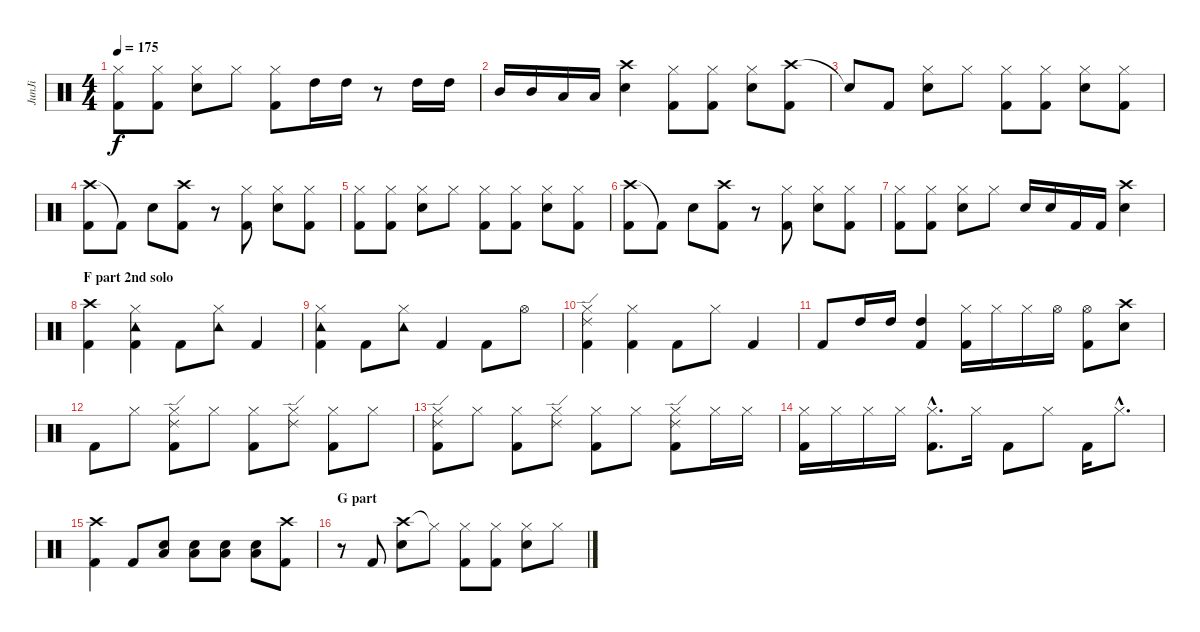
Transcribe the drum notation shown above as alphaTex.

\track ("JunJi" "JunJi") {instrument percussion}
\staff {score}
\articulation defaults
\ts (4 4)
\tempo 175
\clef neutral
\ks c
("Hi-Hat (closed)" "Kick (hit) 2").8{dy f} ("Hi-Hat (closed)" "Kick (hit) 2").8 ("Hi-Hat (closed)" "Snare (hit) 2").8 "Hi-Hat (closed)".8 ("Hi-Hat (closed)" "Kick (hit) 2").8 "High Tom (hit)".16 "High Tom (hit)".16 r.8 "High Tom (hit)".16 "High Tom (hit)".16 |
"Mid Tom (hit)".16 "Mid Tom (hit)".16 "Low Tom (hit)".16 "Low Tom (hit)".16 ("Crash high (hit)" "Snare (hit) 2").4 ("Hi-Hat (closed)" "Kick (hit) 2").8 ("Hi-Hat (closed)" "Kick (hit) 2").8 ("Hi-Hat (closed)" "Snare (hit) 2").8 ("Crash high (hit)" "Kick (hit) 2").8 |
"Snare (hit)"{t}.8 "Kick (hit) 2".8 ("Hi-Hat (closed)" "Snare (hit) 2").8 "Hi-Hat (closed)".8 ("Hi-Hat (closed)" "Kick (hit) 2").8 ("Hi-Hat (closed)" "Kick (hit) 2").8 ("Hi-Hat (closed)" "Snare (hit) 2").8 ("Hi-Hat (closed)" "Kick (hit) 2").8 |
("Crash high (hit)" "Kick (hit) 2").8 "Kick (hit) 2"{t}.8 "Snare (hit) 2".8 ("Crash high (hit)" "Kick (hit) 2").8 r.8 ("Hi-Hat (closed)" "Kick (hit) 2").8 ("Hi-Hat (closed)" "Snare (hit) 2").8 ("Hi-Hat (closed)" "Kick (hit) 2").8 |
("Hi-Hat (closed)" "Kick (hit) 2").8 ("Hi-Hat (closed)" "Kick (hit) 2").8 ("Hi-Hat (closed)" "Snare (hit) 2").8 "Hi-Hat (closed)".8 ("Hi-Hat (closed)" "Kick (hit) 2").8 ("Hi-Hat (closed)" "Kick (hit) 2").8 ("Hi-Hat (closed)" "Snare (hit) 2").8 ("Hi-Hat (closed)" "Kick (hit) 2").8 |
("Crash high (hit)" "Kick (hit) 2").8 "Kick (hit) 2"{t}.8 "Snare (hit) 2".8 ("Crash high (hit)" "Kick (hit) 2").8 r.8 ("Hi-Hat (closed)" "Kick (hit) 2").8 ("Hi-Hat (closed)" "Snare (hit) 2").8 ("Hi-Hat (closed)" "Kick (hit) 2").8 |
("Hi-Hat (closed)" "Kick (hit) 2").8 ("Hi-Hat (closed)" "Kick (hit) 2").8 ("Hi-Hat (closed)" "Snare (hit) 2").8 "Hi-Hat (closed)".8 "Snare (hit) 2".16 "Snare (hit) 2".16 "Kick (hit) 2".16 "Kick (hit) 2".16 ("Crash high (hit)" "Snare (hit) 2").4 |
\section ("" "F part 2nd solo")
("Crash high (hit)" "Kick (hit) 2").4 ("Hi-Hat (closed)" "Tambourine (hit)" "Kick (hit) 2").4 "Kick (hit) 2".8 ("Hi-Hat (closed)" "Tambourine (hit)").8 "Kick (hit) 2".4 |
("Hi-Hat (closed)" "Tambourine (hit)" "Kick (hit) 2").4 "Kick (hit) 2".8 ("Hi-Hat (closed)" "Tambourine (hit)").8 "Kick (hit) 2".4 "Kick (hit) 2".8 "Hi-Hat (open)".8 |
("Hi-Hat (closed)" "Ride (edge) 2" "Kick (hit) 2").4 ("Hi-Hat (closed)" "Kick (hit) 2").4 "Kick (hit) 2".8 "Hi-Hat (closed)".8 "Kick (hit) 2".4 |
"Kick (hit) 2".8 "High Tom (hit)".16 "High Tom (hit)".16 ("High Tom (hit)" "Kick (hit) 2").4 ("Hi-Hat (closed)" "Kick (hit) 2").16 "Hi-Hat (closed)".16 "Hi-Hat (closed)".16 "Hi-Hat (open)".16 ("Hi-Hat (open)" "Kick (hit) 2").8 ("Crash high (hit)" "Snare (hit) 2").8 |
"Kick (hit) 2".8 "Hi-Hat (closed)".8 ("Hi-Hat (closed)" "Ride (edge) 2" "Kick (hit) 2").8 "Hi-Hat (closed)".8 ("Hi-Hat (closed)" "Kick (hit) 2").8 ("Hi-Hat (closed)" "Ride (edge) 2").8 ("Hi-Hat (closed)" "Kick (hit) 2").8 "Hi-Hat (closed)".8 |
("Hi-Hat (closed)" "Ride (edge) 2" "Kick (hit) 2").8 "Hi-Hat (closed)".8 ("Hi-Hat (closed)" "Kick (hit) 2").8 ("Hi-Hat (closed)" "Ride (edge) 2").8 ("Hi-Hat (closed)" "Kick (hit) 2").8 "Hi-Hat (closed)".8 ("Hi-Hat (closed)" "Ride (edge) 2" "Kick (hit) 2").8 "Hi-Hat (closed)".16 "Hi-Hat (closed)".16 |
("Hi-Hat (closed)" "Kick (hit) 2").16 "Hi-Hat (closed)".16 "Hi-Hat (closed)".16 "Hi-Hat (closed)".16 ("Hi-Hat (closed)"{hac} "Kick (hit) 2"{hac}).8{d} "Hi-Hat (closed)".16 "Kick (hit) 2".8 "Hi-Hat (closed)".8 "Kick (hit) 2".16 "Hi-Hat (closed)"{hac}.8{d} |
("Crash high (hit)" "Kick (hit) 2").4 "Kick (hit) 2".8 ("Snare (hit) 2" "Low Tom (hit)").8 ("Snare (hit) 2" "Low Tom (hit)").8 ("Snare (hit) 2" "Low Tom (hit)").8 ("Snare (hit) 2" "Low Tom (hit)").8 ("Kick (hit) 2" "Crash high (hit)").8 |
\section ("" "G part")
r.8 "Kick (hit) 2".8 ("Crash high (hit)" "Snare (hit) 2").8 "Hi-Hat (closed)"{t}.8 ("Hi-Hat (closed)" "Kick (hit) 2").8 ("Hi-Hat (closed)" "Kick (hit) 2").8 ("Hi-Hat (closed)" "Snare (hit) 2").8 "Hi-Hat (closed)".8
